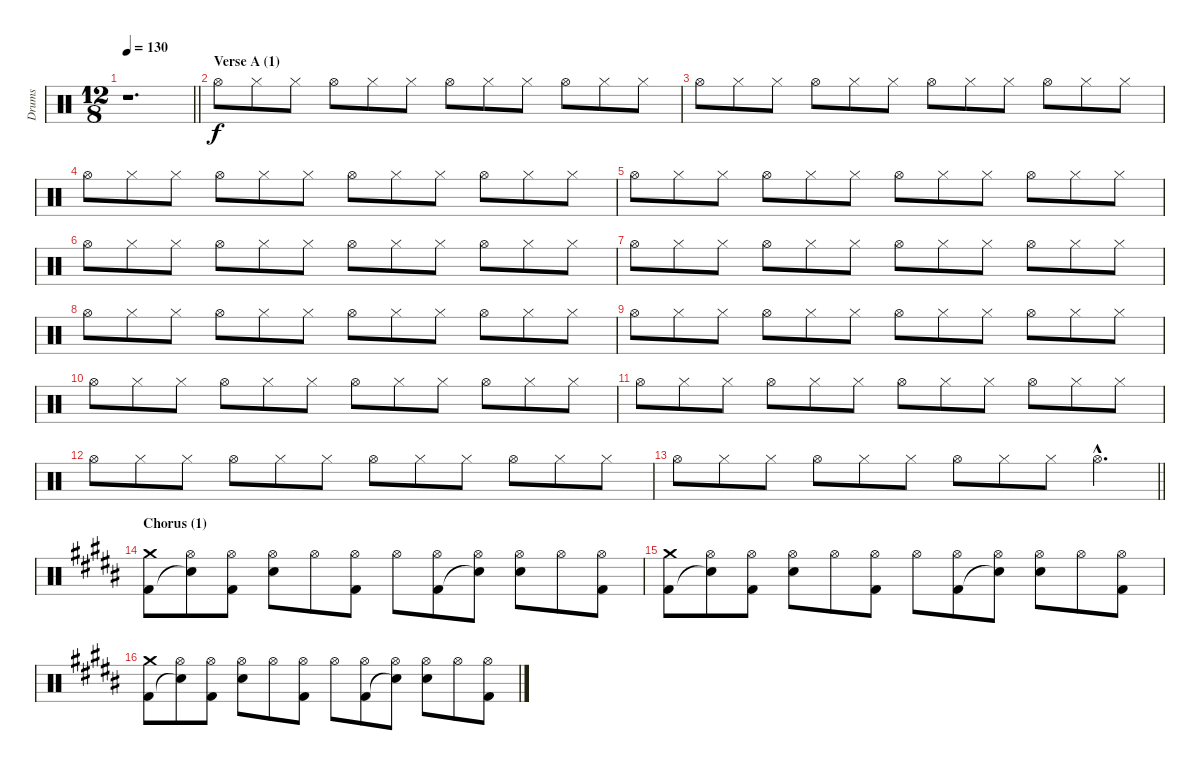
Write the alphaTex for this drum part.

\track ("Drums" "Drums") {instrument percussion}
\staff {score}
\articulation defaults
\ts (12 8)
\tempo 130
\clef neutral
\barLineRight lightlight
\ks c
r.1{d dy f} |
\section ("" "Verse A (1)")
"Hi-Hat (open)".8 "Hi-Hat (closed)".8 "Hi-Hat (closed)".8 "Hi-Hat (open)".8 "Hi-Hat (closed)".8 "Hi-Hat (closed)".8 "Hi-Hat (open)".8 "Hi-Hat (closed)".8 "Hi-Hat (closed)".8 "Hi-Hat (open)".8 "Hi-Hat (closed)".8 "Hi-Hat (closed)".8 |
"Hi-Hat (open)".8 "Hi-Hat (closed)".8 "Hi-Hat (closed)".8 "Hi-Hat (open)".8 "Hi-Hat (closed)".8 "Hi-Hat (closed)".8 "Hi-Hat (open)".8 "Hi-Hat (closed)".8 "Hi-Hat (closed)".8 "Hi-Hat (open)".8 "Hi-Hat (closed)".8 "Hi-Hat (closed)".8 |
"Hi-Hat (open)".8 "Hi-Hat (closed)".8 "Hi-Hat (closed)".8 "Hi-Hat (open)".8 "Hi-Hat (closed)".8 "Hi-Hat (closed)".8 "Hi-Hat (open)".8 "Hi-Hat (closed)".8 "Hi-Hat (closed)".8 "Hi-Hat (open)".8 "Hi-Hat (closed)".8 "Hi-Hat (closed)".8 |
"Hi-Hat (open)".8 "Hi-Hat (closed)".8 "Hi-Hat (closed)".8 "Hi-Hat (open)".8 "Hi-Hat (closed)".8 "Hi-Hat (closed)".8 "Hi-Hat (open)".8 "Hi-Hat (closed)".8 "Hi-Hat (closed)".8 "Hi-Hat (open)".8 "Hi-Hat (closed)".8 "Hi-Hat (closed)".8 |
"Hi-Hat (open)".8 "Hi-Hat (closed)".8 "Hi-Hat (closed)".8 "Hi-Hat (open)".8 "Hi-Hat (closed)".8 "Hi-Hat (closed)".8 "Hi-Hat (open)".8 "Hi-Hat (closed)".8 "Hi-Hat (closed)".8 "Hi-Hat (open)".8 "Hi-Hat (closed)".8 "Hi-Hat (closed)".8 |
"Hi-Hat (open)".8 "Hi-Hat (closed)".8 "Hi-Hat (closed)".8 "Hi-Hat (open)".8 "Hi-Hat (closed)".8 "Hi-Hat (closed)".8 "Hi-Hat (open)".8 "Hi-Hat (closed)".8 "Hi-Hat (closed)".8 "Hi-Hat (open)".8 "Hi-Hat (closed)".8 "Hi-Hat (closed)".8 |
"Hi-Hat (open)".8 "Hi-Hat (closed)".8 "Hi-Hat (closed)".8 "Hi-Hat (open)".8 "Hi-Hat (closed)".8 "Hi-Hat (closed)".8 "Hi-Hat (open)".8 "Hi-Hat (closed)".8 "Hi-Hat (closed)".8 "Hi-Hat (open)".8 "Hi-Hat (closed)".8 "Hi-Hat (closed)".8 |
"Hi-Hat (open)".8 "Hi-Hat (closed)".8 "Hi-Hat (closed)".8 "Hi-Hat (open)".8 "Hi-Hat (closed)".8 "Hi-Hat (closed)".8 "Hi-Hat (open)".8 "Hi-Hat (closed)".8 "Hi-Hat (closed)".8 "Hi-Hat (open)".8 "Hi-Hat (closed)".8 "Hi-Hat (closed)".8 |
"Hi-Hat (open)".8 "Hi-Hat (closed)".8 "Hi-Hat (closed)".8 "Hi-Hat (open)".8 "Hi-Hat (closed)".8 "Hi-Hat (closed)".8 "Hi-Hat (open)".8 "Hi-Hat (closed)".8 "Hi-Hat (closed)".8 "Hi-Hat (open)".8 "Hi-Hat (closed)".8 "Hi-Hat (closed)".8 |
"Hi-Hat (open)".8 "Hi-Hat (closed)".8 "Hi-Hat (closed)".8 "Hi-Hat (open)".8 "Hi-Hat (closed)".8 "Hi-Hat (closed)".8 "Hi-Hat (open)".8 "Hi-Hat (closed)".8 "Hi-Hat (closed)".8 "Hi-Hat (open)".8 "Hi-Hat (closed)".8 "Hi-Hat (closed)".8 |
"Hi-Hat (open)".8 "Hi-Hat (closed)".8 "Hi-Hat (closed)".8 "Hi-Hat (open)".8 "Hi-Hat (closed)".8 "Hi-Hat (closed)".8 "Hi-Hat (open)".8 "Hi-Hat (closed)".8 "Hi-Hat (closed)".8 "Hi-Hat (open)".8 "Hi-Hat (closed)".8 "Hi-Hat (closed)".8 |
\barLineRight lightlight "Hi-Hat (open)".8 "Hi-Hat (closed)".8 "Hi-Hat (closed)".8 "Hi-Hat (open)".8 "Hi-Hat (closed)".8 "Hi-Hat (closed)".8 "Hi-Hat (open)".8 "Hi-Hat (closed)".8 "Hi-Hat (closed)".8 "Hi-Hat (open)"{hac}.4{d}
|
\section ("" "Chorus (1)")
\ks b
("Crash medium (hit)" "Kick (hit) 2").8 ("Hi-Hat (open)" "Snare (hit)"{t}).8 ("Hi-Hat (open)" "Kick (hit) 2").8 ("Hi-Hat (open)" "Electric Snare (hit)").8 "Hi-Hat (open)".8 ("Hi-Hat (open)" "Kick (hit) 2").8 "Hi-Hat (open)".8 ("Hi-Hat (open)" "Kick (hit) 2").8 ("Hi-Hat (open)" "Snare (hit)"{t}).8 ("Hi-Hat (open)" "Electric Snare (hit)").8 "Hi-Hat (open)".8 ("Hi-Hat (open)" "Kick (hit) 2").8 |
("Crash medium (hit)" "Kick (hit) 2").8 ("Hi-Hat (open)" "Snare (hit)"{t}).8 ("Hi-Hat (open)" "Kick (hit) 2").8 ("Hi-Hat (open)" "Electric Snare (hit)").8 "Hi-Hat (open)".8 ("Hi-Hat (open)" "Kick (hit) 2").8 "Hi-Hat (open)".8 ("Hi-Hat (open)" "Kick (hit) 2").8 ("Hi-Hat (open)" "Snare (hit)"{t}).8 ("Hi-Hat (open)" "Electric Snare (hit)").8 "Hi-Hat (open)".8 ("Hi-Hat (open)" "Kick (hit) 2").8 |
("Crash medium (hit)" "Kick (hit) 2").8 ("Hi-Hat (open)" "Snare (hit)"{t}).8 ("Hi-Hat (open)" "Kick (hit) 2").8 ("Hi-Hat (open)" "Electric Snare (hit)").8 "Hi-Hat (open)".8 ("Hi-Hat (open)" "Kick (hit) 2").8 "Hi-Hat (open)".8 ("Hi-Hat (open)" "Kick (hit) 2").8 ("Hi-Hat (open)" "Snare (hit)"{t}).8 ("Hi-Hat (open)" "Electric Snare (hit)").8 "Hi-Hat (open)".8 ("Hi-Hat (open)" "Kick (hit) 2").8
